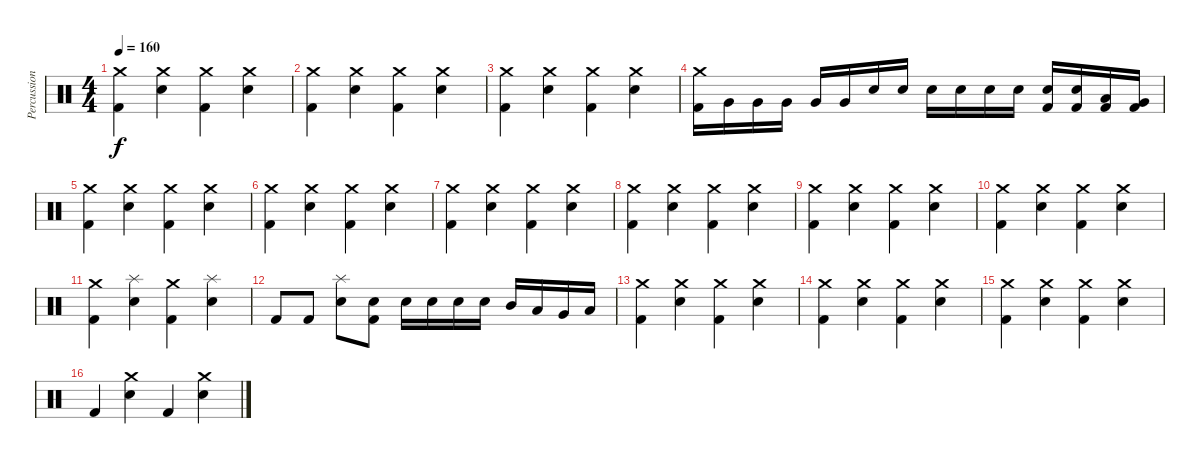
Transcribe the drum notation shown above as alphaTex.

\track ("Percussion" "Percussion") {instrument percussion}
\staff {score}
\articulation defaults
\ts (4 4)
\tempo 160
\clef neutral
\ks c
("Crash medium (hit)" "Kick (hit) 2").4{dy f} ("Crash medium (hit)" "Electric Snare (hit)").4 ("Crash medium (hit)" "Kick (hit) 2").4 ("Crash medium (hit)" "Electric Snare (hit)").4 |
("Crash medium (hit)" "Kick (hit) 2").4 ("Crash medium (hit)" "Electric Snare (hit)").4 ("Crash medium (hit)" "Kick (hit) 2").4 ("Crash medium (hit)" "Electric Snare (hit)").4 |
("Crash medium (hit)" "Kick (hit) 2").4 ("Crash medium (hit)" "Electric Snare (hit)").4 ("Crash medium (hit)" "Kick (hit) 2").4 ("Crash medium (hit)" "Electric Snare (hit)").4 |
("Crash medium (hit)" "Kick (hit) 2").16 "Very Low Tom (hit)".16 "Very Low Tom (hit)".16 "Very Low Tom (hit)".16 "Very Low Tom (hit)".16 "Very Low Tom (hit)".16 "Electric Snare (hit)".16 "Electric Snare (hit)".16 "Electric Snare (hit)".16 "Electric Snare (hit)".16 "Electric Snare (hit)".16 "Electric Snare (hit)".16 ("Electric Snare (hit)" "Kick (hit) 2").16 ("Electric Snare (hit)" "Kick (hit) 2").16 ("Low Tom (hit)" "Kick (hit) 2").16 ("Very Low Tom (hit)" "Kick (hit) 2").16 |
("Crash medium (hit)" "Kick (hit) 2").4 ("Crash medium (hit)" "Electric Snare (hit)").4 ("Crash medium (hit)" "Kick (hit) 2").4 ("Crash medium (hit)" "Electric Snare (hit)").4 |
("Crash medium (hit)" "Kick (hit) 2").4 ("Crash medium (hit)" "Electric Snare (hit)").4 ("Crash medium (hit)" "Kick (hit) 2").4 ("Crash medium (hit)" "Electric Snare (hit)").4 |
("Crash medium (hit)" "Kick (hit) 2").4 ("Crash medium (hit)" "Electric Snare (hit)").4 ("Crash medium (hit)" "Kick (hit) 2").4 ("Crash medium (hit)" "Electric Snare (hit)").4 |
("Crash medium (hit)" "Kick (hit) 2").4 ("Crash medium (hit)" "Electric Snare (hit)").4 ("Crash medium (hit)" "Kick (hit) 2").4 ("Crash medium (hit)" "Electric Snare (hit)").4 |
("Crash medium (hit)" "Kick (hit) 2").4 ("Crash medium (hit)" "Electric Snare (hit)").4 ("Crash medium (hit)" "Kick (hit) 2").4 ("Crash medium (hit)" "Electric Snare (hit)").4 |
("Crash medium (hit)" "Kick (hit) 2").4 ("Crash medium (hit)" "Electric Snare (hit)").4 ("Crash medium (hit)" "Kick (hit) 2").4 ("Crash medium (hit)" "Electric Snare (hit)").4 |
("Crash medium (hit)" "Kick (hit) 2").4 ("Splash (hit)" "Electric Snare (hit)").4 ("Crash medium (hit)" "Kick (hit) 2").4 ("Splash (hit)" "Electric Snare (hit)").4 |
"Kick (hit) 2".8 "Kick (hit) 2".8 ("Splash (hit)" "Electric Snare (hit)").8 ("Electric Snare (hit)" "Kick (hit) 2").8 "Electric Snare (hit)".16 "Electric Snare (hit)".16 "Electric Snare (hit)".16 "Electric Snare (hit)".16 "Mid Tom (hit)".16 "Low Tom (hit)".16 "Very Low Tom (hit)".16 "Low Floor Tom (hit)".16 |
("Crash medium (hit)" "Kick (hit) 2").4 ("Crash medium (hit)" "Electric Snare (hit)").4 ("Crash medium (hit)" "Kick (hit) 2").4 ("Crash medium (hit)" "Electric Snare (hit)").4 |
("Crash medium (hit)" "Kick (hit) 2").4 ("Crash medium (hit)" "Electric Snare (hit)").4 ("Crash medium (hit)" "Kick (hit) 2").4 ("Crash medium (hit)" "Electric Snare (hit)").4 |
("Crash medium (hit)" "Kick (hit) 2").4 ("Crash medium (hit)" "Electric Snare (hit)").4 ("Crash medium (hit)" "Kick (hit) 2").4 ("Crash medium (hit)" "Electric Snare (hit)").4 |
"Kick (hit) 2".4 ("Crash medium (hit)" "Electric Snare (hit)").4 "Kick (hit) 2".4 ("Crash medium (hit)" "Electric Snare (hit)").4
